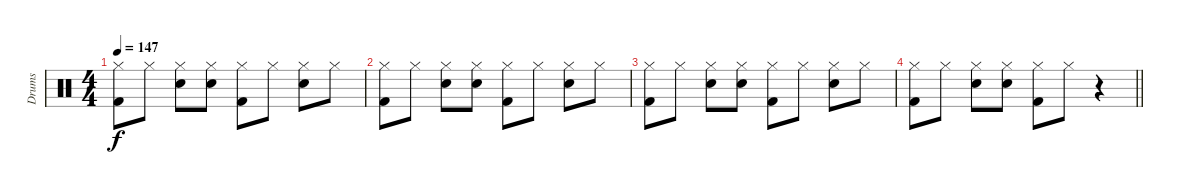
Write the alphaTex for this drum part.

\track ("Drums" "Drums") {instrument percussion}
\staff {score}
\articulation defaults
\ts (4 4)
\tempo 147
\clef neutral
\ks c
("Hi-Hat (closed)" "Kick (hit) 2").8{dy f} "Hi-Hat (closed)".8 ("Hi-Hat (closed)" "Snare (hit) 2").8 ("Hi-Hat (closed)" "Snare (hit) 2").8 ("Hi-Hat (closed)" "Kick (hit) 2").8 "Hi-Hat (closed)".8 ("Hi-Hat (closed)" "Snare (hit) 2").8 "Hi-Hat (closed)".8 |
("Hi-Hat (closed)" "Kick (hit) 2").8 "Hi-Hat (closed)".8 ("Hi-Hat (closed)" "Snare (hit) 2").8 ("Hi-Hat (closed)" "Snare (hit) 2").8 ("Hi-Hat (closed)" "Kick (hit) 2").8 "Hi-Hat (closed)".8 ("Hi-Hat (closed)" "Snare (hit) 2").8 "Hi-Hat (closed)".8 |
("Hi-Hat (closed)" "Kick (hit) 2").8 "Hi-Hat (closed)".8 ("Hi-Hat (closed)" "Snare (hit) 2").8 ("Hi-Hat (closed)" "Snare (hit) 2").8 ("Hi-Hat (closed)" "Kick (hit) 2").8 "Hi-Hat (closed)".8 ("Hi-Hat (closed)" "Snare (hit) 2").8 "Hi-Hat (closed)".8 |
\barLineRight lightlight
("Hi-Hat (closed)" "Kick (hit) 2").8 "Hi-Hat (closed)".8 ("Hi-Hat (closed)" "Snare (hit) 2").8 ("Hi-Hat (closed)" "Snare (hit) 2").8 ("Hi-Hat (closed)" "Kick (hit) 2").8 "Hi-Hat (closed)".8 r.4
